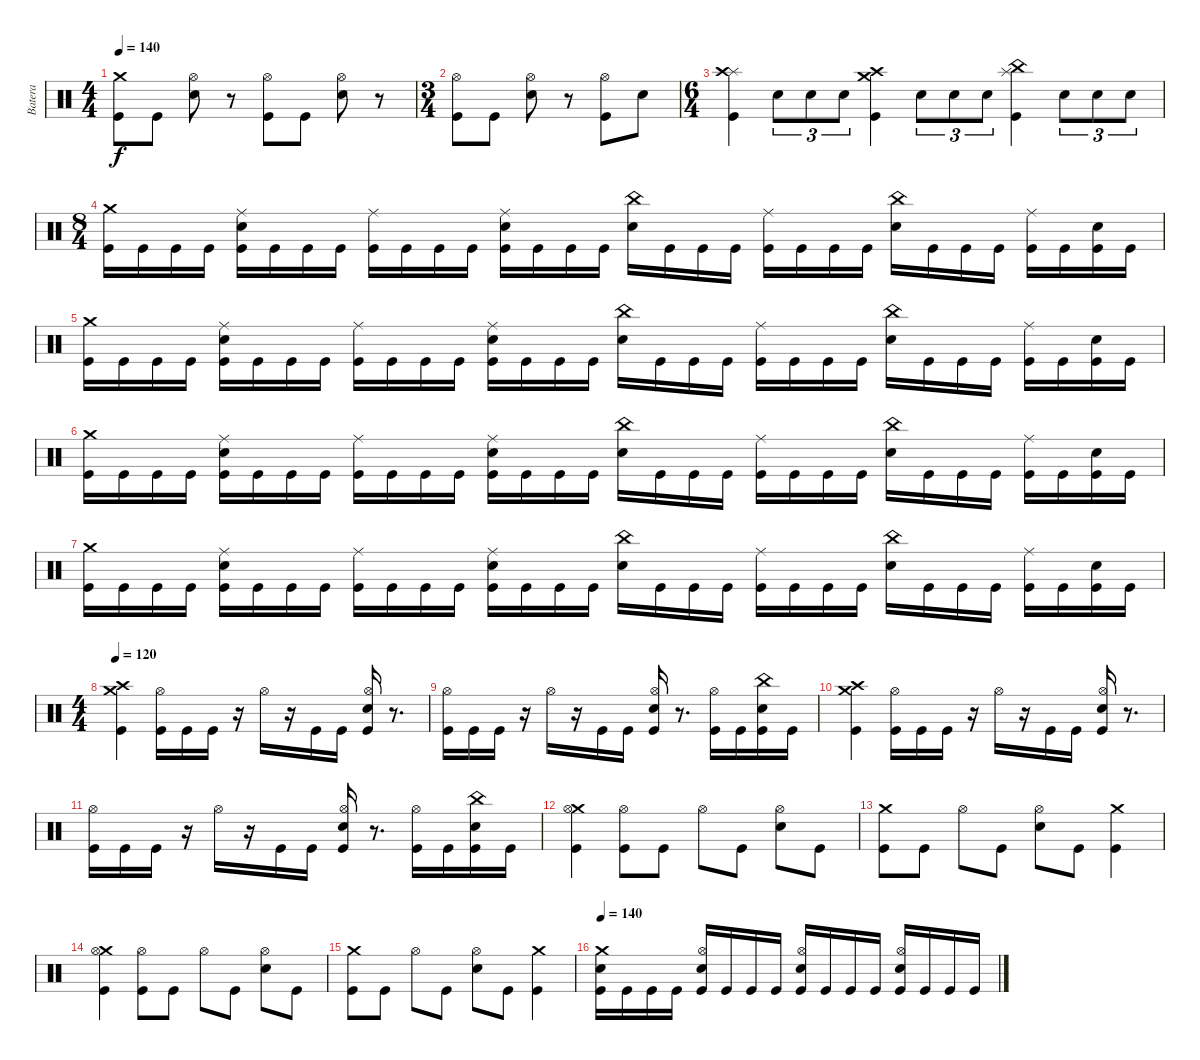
\track ("Batera" "Batera") {instrument percussion}
\staff {score}
\articulation defaults
\ts (4 4)
\tempo 140
\clef neutral
\ks c
("Crash medium (hit)" "Kick (hit)").8{dy f} "Kick (hit)".8 ("Hi-Hat (open)" "Snare (hit) 2").8 r.8 ("Hi-Hat (open)" "Kick (hit)").8 "Kick (hit)".8 ("Hi-Hat (open)" "Snare (hit) 2").8 r.8 |
\ts (3 4)
("Hi-Hat (open)" "Kick (hit)").8 "Kick (hit)".8 ("Hi-Hat (open)" "Snare (hit) 2").8 r.8 ("Hi-Hat (open)" "Kick (hit)").8 "Snare (hit) 2".8 |
\ts (6 4)
("Splash (hit)" "Crash high (hit)" "Kick (hit)").4 "Snare (hit) 2".8{tu (3 2)} "Snare (hit) 2".8{tu (3 2)} "Snare (hit) 2".8{tu (3 2)} ("Crash high (hit)" "Crash medium (hit)" "Kick (hit)").4 "Snare (hit) 2".8{tu (3 2)} "Snare (hit) 2".8{tu (3 2)} "Snare (hit) 2".8{tu (3 2)} ("Splash (hit)" "China (hit)" "Kick (hit)").4 "Snare (hit) 2".8{tu (3 2)} "Snare (hit) 2".8{tu (3 2)} "Snare (hit) 2".8{tu (3 2)} |
\ts (8 4)
("Crash medium (hit)" "Kick (hit)").16 "Kick (hit)".16 "Kick (hit)".16 "Kick (hit)".16 ("Ride (middle)" "Snare (hit) 2" "Kick (hit)").16 "Kick (hit)".16 "Kick (hit)".16 "Kick (hit)".16 ("Ride (middle)" "Kick (hit)").16 "Kick (hit)".16 "Kick (hit)".16 "Kick (hit)".16 ("Ride (middle)" "Snare (hit) 2" "Kick (hit)").16 "Kick (hit)".16 "Kick (hit)".16 "Kick (hit)".16 ("China (hit)" "Snare (hit) 2").16 "Kick (hit)".16 "Kick (hit)".16 "Kick (hit)".16 ("Ride (middle)" "Kick (hit)").16 "Kick (hit)".16 "Kick (hit)".16 "Kick (hit)".16 ("China (hit)" "Snare (hit) 2").16 "Kick (hit)".16 "Kick (hit)".16 "Kick (hit)".16 ("Ride (middle)" "Kick (hit)").16 "Kick (hit)".16 ("Snare (hit) 2" "Kick (hit)").16 "Kick (hit)".16 |
("Crash medium (hit)" "Kick (hit)").16 "Kick (hit)".16 "Kick (hit)".16 "Kick (hit)".16 ("Ride (middle)" "Snare (hit) 2" "Kick (hit)").16 "Kick (hit)".16 "Kick (hit)".16 "Kick (hit)".16 ("Ride (middle)" "Kick (hit)").16 "Kick (hit)".16 "Kick (hit)".16 "Kick (hit)".16 ("Ride (middle)" "Snare (hit) 2" "Kick (hit)").16 "Kick (hit)".16 "Kick (hit)".16 "Kick (hit)".16 ("China (hit)" "Snare (hit) 2").16 "Kick (hit)".16 "Kick (hit)".16 "Kick (hit)".16 ("Ride (middle)" "Kick (hit)").16 "Kick (hit)".16 "Kick (hit)".16 "Kick (hit)".16 ("China (hit)" "Snare (hit) 2").16 "Kick (hit)".16 "Kick (hit)".16 "Kick (hit)".16 ("Ride (middle)" "Kick (hit)").16 "Kick (hit)".16 ("Snare (hit) 2" "Kick (hit)").16 "Kick (hit)".16 |
("Crash medium (hit)" "Kick (hit)").16 "Kick (hit)".16 "Kick (hit)".16 "Kick (hit)".16 ("Ride (middle)" "Snare (hit) 2" "Kick (hit)").16 "Kick (hit)".16 "Kick (hit)".16 "Kick (hit)".16 ("Ride (middle)" "Kick (hit)").16 "Kick (hit)".16 "Kick (hit)".16 "Kick (hit)".16 ("Ride (middle)" "Snare (hit) 2" "Kick (hit)").16 "Kick (hit)".16 "Kick (hit)".16 "Kick (hit)".16 ("China (hit)" "Snare (hit) 2").16 "Kick (hit)".16 "Kick (hit)".16 "Kick (hit)".16 ("Ride (middle)" "Kick (hit)").16 "Kick (hit)".16 "Kick (hit)".16 "Kick (hit)".16 ("China (hit)" "Snare (hit) 2").16 "Kick (hit)".16 "Kick (hit)".16 "Kick (hit)".16 ("Ride (middle)" "Kick (hit)").16 "Kick (hit)".16 ("Snare (hit) 2" "Kick (hit)").16 "Kick (hit)".16 |
("Crash medium (hit)" "Kick (hit)").16 "Kick (hit)".16 "Kick (hit)".16 "Kick (hit)".16 ("Ride (middle)" "Snare (hit) 2" "Kick (hit)").16 "Kick (hit)".16 "Kick (hit)".16 "Kick (hit)".16 ("Ride (middle)" "Kick (hit)").16 "Kick (hit)".16 "Kick (hit)".16 "Kick (hit)".16 ("Ride (middle)" "Snare (hit) 2" "Kick (hit)").16 "Kick (hit)".16 "Kick (hit)".16 "Kick (hit)".16 ("China (hit)" "Snare (hit) 2").16 "Kick (hit)".16 "Kick (hit)".16 "Kick (hit)".16 ("Ride (middle)" "Kick (hit)").16 "Kick (hit)".16 "Kick (hit)".16 "Kick (hit)".16 ("China (hit)" "Snare (hit) 2").16 "Kick (hit)".16 "Kick (hit)".16 "Kick (hit)".16 ("Ride (middle)" "Kick (hit)").16 "Kick (hit)".16 ("Snare (hit) 2" "Kick (hit)").16 "Kick (hit)".16 |
\ts (4 4)
\tempo 120
("Crash medium (hit)" "Crash high (hit)" "Kick (hit)").4 ("Hi-Hat (open)" "Kick (hit)").16 "Kick (hit)".16 "Kick (hit)".16 r.16 "Hi-Hat (open)".16 r.16 "Kick (hit)".16 "Kick (hit)".16 ("Hi-Hat (open)" "Snare (hit) 2" "Kick (hit)").16 r.8{d} |
("Hi-Hat (open)" "Kick (hit)").16 "Kick (hit)".16 "Kick (hit)".16 r.16 "Hi-Hat (open)".16 r.16 "Kick (hit)".16 "Kick (hit)".16 ("Hi-Hat (open)" "Snare (hit) 2" "Kick (hit)").16 r.8{d} ("Hi-Hat (open)" "Kick (hit)").16 "Kick (hit)".16 ("China (hit)" "Snare (hit) 2" "Kick (hit)").16 "Kick (hit)".16 |
("Crash medium (hit)" "Crash high (hit)" "Kick (hit)").4 ("Hi-Hat (open)" "Kick (hit)").16 "Kick (hit)".16 "Kick (hit)".16 r.16 "Hi-Hat (open)".16 r.16 "Kick (hit)".16 "Kick (hit)".16 ("Hi-Hat (open)" "Snare (hit) 2" "Kick (hit)").16 r.8{d} |
("Hi-Hat (open)" "Kick (hit)").16 "Kick (hit)".16 "Kick (hit)".16 r.16 "Hi-Hat (open)".16 r.16 "Kick (hit)".16 "Kick (hit)".16 ("Hi-Hat (open)" "Snare (hit) 2" "Kick (hit)").16 r.8{d} ("Hi-Hat (open)" "Kick (hit)").16 "Kick (hit)".16 ("China (hit)" "Snare (hit) 2" "Kick (hit)").16 "Kick (hit)".16 |
("Crash medium (hit)" "Hi-Hat (open)" "Kick (hit)").4 ("Hi-Hat (open)" "Kick (hit)").8 "Kick (hit)".8 "Hi-Hat (open)".8 "Kick (hit)".8 ("Hi-Hat (open)" "Snare (hit) 2").8 "Kick (hit)".8 |
("Crash medium (hit)" "Kick (hit)").8 "Kick (hit)".8 "Hi-Hat (open)".8 "Kick (hit)".8 ("Hi-Hat (open)" "Snare (hit) 2").8 "Kick (hit)".8 ("Crash medium (hit)" "Kick (hit)").4 |
("Crash medium (hit)" "Hi-Hat (open)" "Kick (hit)").4 ("Hi-Hat (open)" "Kick (hit)").8 "Kick (hit)".8 "Hi-Hat (open)".8 "Kick (hit)".8 ("Hi-Hat (open)" "Snare (hit) 2").8 "Kick (hit)".8 |
("Crash medium (hit)" "Kick (hit)").8 "Kick (hit)".8 "Hi-Hat (open)".8 "Kick (hit)".8 ("Hi-Hat (open)" "Snare (hit) 2").8 "Kick (hit)".8 ("Crash medium (hit)" "Kick (hit)").4 |
\tempo 140
("Crash medium (hit)" "Snare (hit) 2" "Kick (hit)").16 "Kick (hit)".16 "Kick (hit)".16 "Kick (hit)".16 ("Hi-Hat (open)" "Snare (hit) 2" "Kick (hit)").16 "Kick (hit)".16 "Kick (hit)".16 "Kick (hit)".16 ("Hi-Hat (open)" "Snare (hit) 2" "Kick (hit)").16 "Kick (hit)".16 "Kick (hit)".16 "Kick (hit)".16 ("Hi-Hat (open)" "Snare (hit) 2" "Kick (hit)").16 "Kick (hit)".16 "Kick (hit)".16 "Kick (hit)".16
